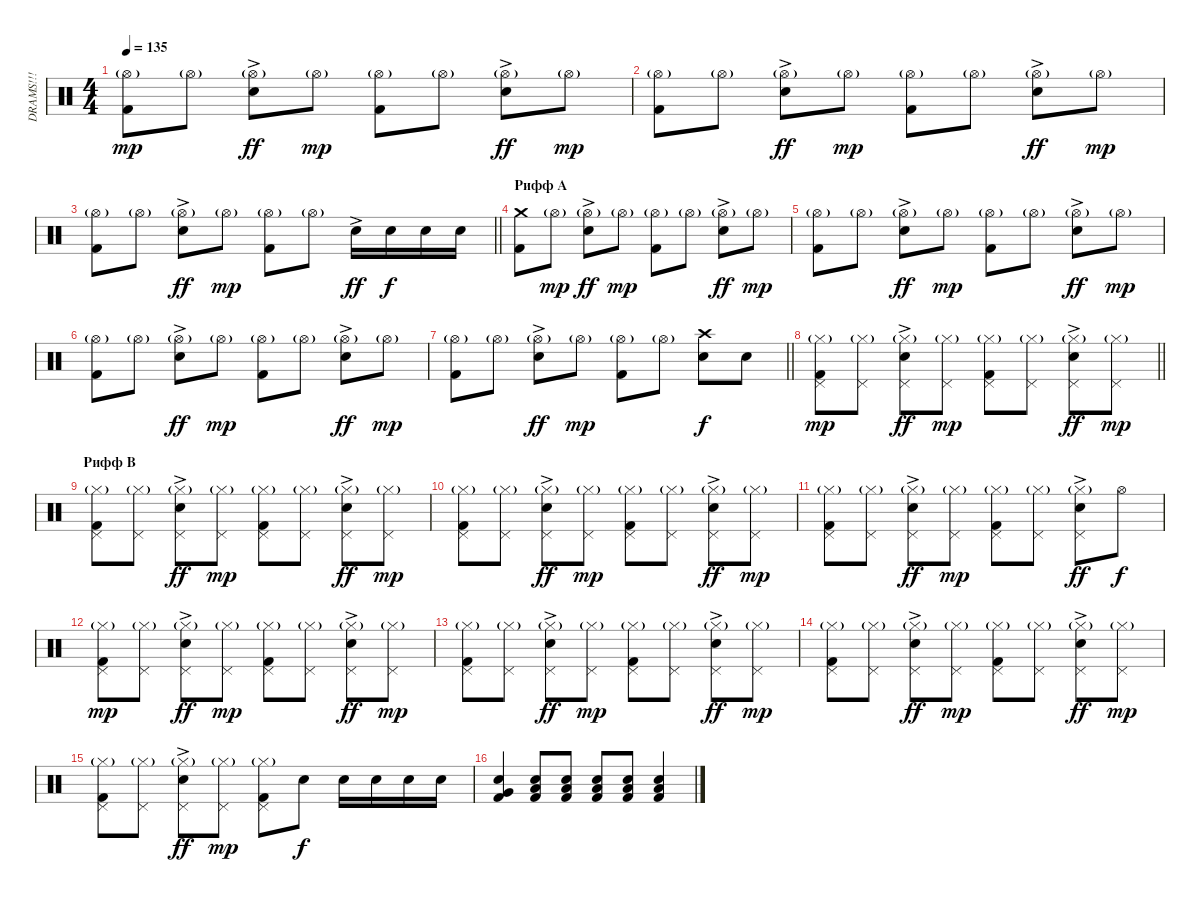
\track ("DRAMS!!!" "DRAMS!!!") {instrument percussion}
\staff {score}
\articulation defaults
\ts (4 4)
\tempo 135
\clef neutral
\ks c
("Hi-Hat (open)"{g} "Kick (hit) 2").8{dy mp} "Hi-Hat (open)"{g}.8 ("Hi-Hat (open)"{g} "Snare (hit) 2"{ac}).8{dy ff} "Hi-Hat (open)"{g}.8{dy mp} ("Hi-Hat (open)"{g} "Kick (hit) 2").8 "Hi-Hat (open)"{g}.8 ("Hi-Hat (open)"{g} "Snare (hit) 2"{ac}).8{dy ff} "Hi-Hat (open)"{g}.8{dy mp} |
("Hi-Hat (open)"{g} "Kick (hit) 2").8 "Hi-Hat (open)"{g}.8 ("Hi-Hat (open)"{g} "Snare (hit) 2"{ac}).8{dy ff} "Hi-Hat (open)"{g}.8{dy mp} ("Hi-Hat (open)"{g} "Kick (hit) 2").8 "Hi-Hat (open)"{g}.8 ("Hi-Hat (open)"{g} "Snare (hit) 2"{ac}).8{dy ff} "Hi-Hat (open)"{g}.8{dy mp} |
\barLineRight lightlight
("Hi-Hat (open)"{g} "Kick (hit) 2").8 "Hi-Hat (open)"{g}.8 ("Hi-Hat (open)"{g} "Snare (hit) 2"{ac}).8{dy ff} "Hi-Hat (open)"{g}.8{dy mp} ("Hi-Hat (open)"{g} "Kick (hit) 2").8 "Hi-Hat (open)"{g}.8 "Snare (hit) 2"{ac}.16{dy ff} "Snare (hit) 2".16{dy f} "Snare (hit) 2".16 "Snare (hit) 2".16 |
\section ("" "Рифф А")
("Crash medium (hit)" "Kick (hit) 2").8 "Hi-Hat (open)"{g}.8{dy mp} ("Hi-Hat (open)"{g} "Snare (hit) 2"{ac}).8{dy ff} "Hi-Hat (open)"{g}.8{dy mp} ("Hi-Hat (open)"{g} "Kick (hit) 2").8 "Hi-Hat (open)"{g}.8 ("Hi-Hat (open)"{g} "Snare (hit) 2"{ac}).8{dy ff} "Hi-Hat (open)"{g}.8{dy mp} |
("Hi-Hat (open)"{g} "Kick (hit) 2").8 "Hi-Hat (open)"{g}.8 ("Hi-Hat (open)"{g} "Snare (hit) 2"{ac}).8{dy ff} "Hi-Hat (open)"{g}.8{dy mp} ("Hi-Hat (open)"{g} "Kick (hit) 2").8 "Hi-Hat (open)"{g}.8 ("Hi-Hat (open)"{g} "Snare (hit) 2"{ac}).8{dy ff} "Hi-Hat (open)"{g}.8{dy mp} |
("Hi-Hat (open)"{g} "Kick (hit) 2").8 "Hi-Hat (open)"{g}.8 ("Hi-Hat (open)"{g} "Snare (hit) 2"{ac}).8{dy ff} "Hi-Hat (open)"{g}.8{dy mp} ("Hi-Hat (open)"{g} "Kick (hit) 2").8 "Hi-Hat (open)"{g}.8 ("Hi-Hat (open)"{g} "Snare (hit) 2"{ac}).8{dy ff} "Hi-Hat (open)"{g}.8{dy mp} |
\barLineRight lightlight
("Hi-Hat (open)"{g} "Kick (hit) 2").8 "Hi-Hat (open)"{g}.8 ("Hi-Hat (open)"{g} "Snare (hit) 2"{ac}).8{dy ff} "Hi-Hat (open)"{g}.8{dy mp} ("Hi-Hat (open)"{g} "Kick (hit) 2").8 "Hi-Hat (open)"{g}.8 ("Crash high (hit)" "Snare (hit) 2").8{dy f} "Snare (hit) 2".8 |
\section ("" "")
\barLineRight lightlight
("Pedal Hi-Hat (hit)" "Hi-Hat (closed)"{g} "Kick (hit) 2").8{dy mp} ("Pedal Hi-Hat (hit)" "Hi-Hat (closed)"{g}).8 ("Pedal Hi-Hat (hit)" "Hi-Hat (closed)"{g} "Snare (hit) 2"{ac}).8{dy ff} ("Pedal Hi-Hat (hit)" "Hi-Hat (closed)"{g}).8{dy mp} ("Pedal Hi-Hat (hit)" "Hi-Hat (closed)"{g} "Kick (hit) 2").8 ("Pedal Hi-Hat (hit)" "Hi-Hat (closed)"{g}).8 ("Pedal Hi-Hat (hit)" "Hi-Hat (closed)"{g} "Snare (hit) 2"{ac}).8{dy ff} ("Pedal Hi-Hat (hit)" "Hi-Hat (closed)"{g}).8{dy mp} |
\section ("" "Рифф В")
("Pedal Hi-Hat (hit)" "Hi-Hat (closed)"{g} "Kick (hit) 2").8 ("Pedal Hi-Hat (hit)" "Hi-Hat (closed)"{g}).8 ("Pedal Hi-Hat (hit)" "Hi-Hat (closed)"{g} "Snare (hit) 2"{ac}).8{dy ff} ("Pedal Hi-Hat (hit)" "Hi-Hat (closed)"{g}).8{dy mp} ("Pedal Hi-Hat (hit)" "Hi-Hat (closed)"{g} "Kick (hit) 2").8 ("Pedal Hi-Hat (hit)" "Hi-Hat (closed)"{g}).8 ("Pedal Hi-Hat (hit)" "Hi-Hat (closed)"{g} "Snare (hit) 2"{ac}).8{dy ff} ("Pedal Hi-Hat (hit)" "Hi-Hat (closed)"{g}).8{dy mp} |
("Pedal Hi-Hat (hit)" "Hi-Hat (closed)"{g} "Kick (hit) 2").8 ("Pedal Hi-Hat (hit)" "Hi-Hat (closed)"{g}).8 ("Pedal Hi-Hat (hit)" "Hi-Hat (closed)"{g} "Snare (hit) 2"{ac}).8{dy ff} ("Pedal Hi-Hat (hit)" "Hi-Hat (closed)"{g}).8{dy mp} ("Pedal Hi-Hat (hit)" "Hi-Hat (closed)"{g} "Kick (hit) 2").8 ("Pedal Hi-Hat (hit)" "Hi-Hat (closed)"{g}).8 ("Pedal Hi-Hat (hit)" "Hi-Hat (closed)"{g} "Snare (hit) 2"{ac}).8{dy ff} ("Pedal Hi-Hat (hit)" "Hi-Hat (closed)"{g}).8{dy mp} |
("Pedal Hi-Hat (hit)" "Hi-Hat (closed)"{g} "Kick (hit) 2").8 ("Pedal Hi-Hat (hit)" "Hi-Hat (closed)"{g}).8 ("Pedal Hi-Hat (hit)" "Hi-Hat (closed)"{g} "Snare (hit) 2"{ac}).8{dy ff} ("Pedal Hi-Hat (hit)" "Hi-Hat (closed)"{g}).8{dy mp} ("Pedal Hi-Hat (hit)" "Hi-Hat (closed)"{g} "Kick (hit) 2").8 ("Pedal Hi-Hat (hit)" "Hi-Hat (closed)"{g}).8 ("Pedal Hi-Hat (hit)" "Hi-Hat (closed)"{g} "Snare (hit) 2"{ac}).8{dy ff} "Hi-Hat (open)".8{dy f} |
("Pedal Hi-Hat (hit)" "Hi-Hat (closed)"{g} "Kick (hit) 2").8{dy mp} ("Pedal Hi-Hat (hit)" "Hi-Hat (closed)"{g}).8 ("Pedal Hi-Hat (hit)" "Hi-Hat (closed)"{g} "Snare (hit) 2"{ac}).8{dy ff} ("Pedal Hi-Hat (hit)" "Hi-Hat (closed)"{g}).8{dy mp} ("Pedal Hi-Hat (hit)" "Hi-Hat (closed)"{g} "Kick (hit) 2").8 ("Pedal Hi-Hat (hit)" "Hi-Hat (closed)"{g}).8 ("Pedal Hi-Hat (hit)" "Hi-Hat (closed)"{g} "Snare (hit) 2"{ac}).8{dy ff} ("Pedal Hi-Hat (hit)" "Hi-Hat (closed)"{g}).8{dy mp} |
("Pedal Hi-Hat (hit)" "Hi-Hat (closed)"{g} "Kick (hit) 2").8 ("Pedal Hi-Hat (hit)" "Hi-Hat (closed)"{g}).8 ("Pedal Hi-Hat (hit)" "Hi-Hat (closed)"{g} "Snare (hit) 2"{ac}).8{dy ff} ("Pedal Hi-Hat (hit)" "Hi-Hat (closed)"{g}).8{dy mp} ("Pedal Hi-Hat (hit)" "Hi-Hat (closed)"{g} "Kick (hit) 2").8 ("Pedal Hi-Hat (hit)" "Hi-Hat (closed)"{g}).8 ("Pedal Hi-Hat (hit)" "Hi-Hat (closed)"{g} "Snare (hit) 2"{ac}).8{dy ff} ("Pedal Hi-Hat (hit)" "Hi-Hat (closed)"{g}).8{dy mp} |
("Pedal Hi-Hat (hit)" "Hi-Hat (closed)"{g} "Kick (hit) 2").8 ("Pedal Hi-Hat (hit)" "Hi-Hat (closed)"{g}).8 ("Pedal Hi-Hat (hit)" "Hi-Hat (closed)"{g} "Snare (hit) 2"{ac}).8{dy ff} ("Pedal Hi-Hat (hit)" "Hi-Hat (closed)"{g}).8{dy mp} ("Pedal Hi-Hat (hit)" "Hi-Hat (closed)"{g} "Kick (hit) 2").8 ("Pedal Hi-Hat (hit)" "Hi-Hat (closed)"{g}).8 ("Pedal Hi-Hat (hit)" "Hi-Hat (closed)"{g} "Snare (hit) 2"{ac}).8{dy ff} ("Pedal Hi-Hat (hit)" "Hi-Hat (closed)"{g}).8{dy mp} |
("Pedal Hi-Hat (hit)" "Hi-Hat (closed)"{g} "Kick (hit) 2").8 ("Pedal Hi-Hat (hit)" "Hi-Hat (closed)"{g}).8 ("Pedal Hi-Hat (hit)" "Hi-Hat (closed)"{g} "Snare (hit) 2"{ac}).8{dy ff} ("Pedal Hi-Hat (hit)" "Hi-Hat (closed)"{g}).8{dy mp} ("Pedal Hi-Hat (hit)" "Hi-Hat (closed)"{g} "Kick (hit) 2").8 "Snare (hit) 2".8{dy f} "Snare (hit) 2".16 "Snare (hit) 2".16 "Snare (hit) 2".16 "Snare (hit) 2".16 |
("Hand Clap (hit)" "Very Low Tom (hit)" "Kick (hit) 2").4 ("Hand Clap (hit)" "Low Tom (hit)" "Kick (hit) 2").8 ("Hand Clap (hit)" "Low Tom (hit)" "Kick (hit) 2").8 ("Hand Clap (hit)" "Low Tom (hit)" "Kick (hit) 2").8 ("Hand Clap (hit)" "Low Tom (hit)" "Kick (hit) 2").8 ("Hand Clap (hit)" "Low Tom (hit)" "Kick (hit) 2").4
